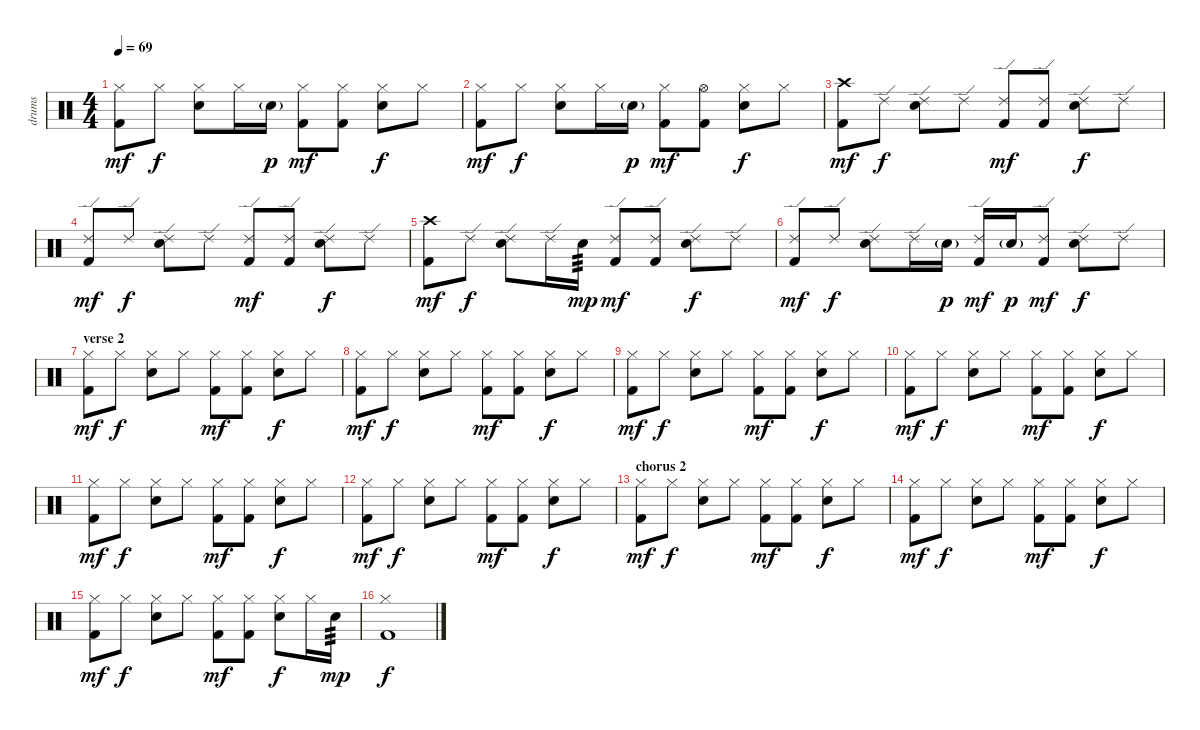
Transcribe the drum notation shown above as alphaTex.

\track ("drums" "drums") {instrument percussion}
\staff {score}
\articulation defaults
\ts (4 4)
\tempo 69
\clef neutral
\ks c
("Hi-Hat (closed)" "Kick (hit) 2").8{dy mf} "Hi-Hat (closed)".8{dy f} ("Hi-Hat (closed)" "Electric Snare (hit)").8 "Hi-Hat (closed)".16 "Electric Snare (hit)"{g}.16{dy p} ("Hi-Hat (closed)" "Kick (hit) 2").8{dy mf} ("Hi-Hat (closed)" "Kick (hit) 2").8 ("Hi-Hat (closed)" "Electric Snare (hit)").8{dy f} "Hi-Hat (closed)".8 |
("Hi-Hat (closed)" "Kick (hit) 2").8{dy mf} "Hi-Hat (closed)".8{dy f} ("Hi-Hat (closed)" "Electric Snare (hit)").8 "Hi-Hat (closed)".16 "Electric Snare (hit)"{g}.16{dy p} ("Hi-Hat (closed)" "Kick (hit) 2").8{dy mf} ("Hi-Hat (open)" "Kick (hit) 2").8 ("Hi-Hat (closed)" "Electric Snare (hit)").8{dy f} "Hi-Hat (closed)".8 |
("Crash high (hit)" "Kick (hit) 2").8{dy mf} "Ride (edge) 2".8{dy f} ("Ride (edge) 2" "Electric Snare (hit)").8 "Ride (edge) 2".8 ("Ride (edge) 2" "Kick (hit) 2").8{dy mf} ("Ride (edge) 2" "Kick (hit) 2").8 ("Ride (edge) 2" "Electric Snare (hit)").8{dy f} "Ride (edge) 2".8 |
("Ride (edge) 2" "Kick (hit) 2").8{dy mf} "Ride (edge) 2".8{dy f} ("Ride (edge) 2" "Electric Snare (hit)").8 "Ride (edge) 2".8 ("Ride (edge) 2" "Kick (hit) 2").8{dy mf} ("Ride (edge) 2" "Kick (hit) 2").8 ("Ride (edge) 2" "Electric Snare (hit)").8{dy f} "Ride (edge) 2".8 |
("Crash high (hit)" "Kick (hit) 2").8{dy mf} "Ride (edge) 2".8{dy f} ("Ride (edge) 2" "Electric Snare (hit)").8 "Ride (edge) 2".16 "Electric Snare (hit)".16{tp 3 dy mp} ("Ride (edge) 2" "Kick (hit) 2").8{dy mf} ("Ride (edge) 2" "Kick (hit) 2").8 ("Ride (edge) 2" "Electric Snare (hit)").8{dy f} "Ride (edge) 2".8 |
("Ride (edge) 2" "Kick (hit) 2").8{dy mf} "Ride (edge) 2".8{dy f} ("Ride (edge) 2" "Electric Snare (hit)").8 "Ride (edge) 2".16 "Electric Snare (hit)"{g}.16{dy p} ("Ride (edge) 2" "Kick (hit) 2").16{dy mf} "Electric Snare (hit)"{g}.16{dy p} ("Ride (edge) 2" "Kick (hit) 2").8{dy mf} ("Ride (edge) 2" "Electric Snare (hit)").8{dy f} "Ride (edge) 2".8 |
\section ("" "verse 2")
("Hi-Hat (closed)" "Kick (hit) 2").8{dy mf} "Hi-Hat (closed)".8{dy f} ("Hi-Hat (closed)" "Electric Snare (hit)").8 "Hi-Hat (closed)".8 ("Hi-Hat (closed)" "Kick (hit) 2").8{dy mf} ("Hi-Hat (closed)" "Kick (hit) 2").8 ("Hi-Hat (closed)" "Electric Snare (hit)").8{dy f} "Hi-Hat (closed)".8 |
("Hi-Hat (closed)" "Kick (hit) 2").8{dy mf} "Hi-Hat (closed)".8{dy f} ("Hi-Hat (closed)" "Electric Snare (hit)").8 "Hi-Hat (closed)".8 ("Hi-Hat (closed)" "Kick (hit) 2").8{dy mf} ("Hi-Hat (closed)" "Kick (hit) 2").8 ("Hi-Hat (closed)" "Electric Snare (hit)").8{dy f} "Hi-Hat (closed)".8 |
("Hi-Hat (closed)" "Kick (hit) 2").8{dy mf} "Hi-Hat (closed)".8{dy f} ("Hi-Hat (closed)" "Electric Snare (hit)").8 "Hi-Hat (closed)".8 ("Hi-Hat (closed)" "Kick (hit) 2").8{dy mf} ("Hi-Hat (closed)" "Kick (hit) 2").8 ("Hi-Hat (closed)" "Electric Snare (hit)").8{dy f} "Hi-Hat (closed)".8 |
("Hi-Hat (closed)" "Kick (hit) 2").8{dy mf} "Hi-Hat (closed)".8{dy f} ("Hi-Hat (closed)" "Electric Snare (hit)").8 "Hi-Hat (closed)".8 ("Hi-Hat (closed)" "Kick (hit) 2").8{dy mf} ("Hi-Hat (closed)" "Kick (hit) 2").8 ("Hi-Hat (closed)" "Electric Snare (hit)").8{dy f} "Hi-Hat (closed)".8 |
("Hi-Hat (closed)" "Kick (hit) 2").8{dy mf} "Hi-Hat (closed)".8{dy f} ("Hi-Hat (closed)" "Electric Snare (hit)").8 "Hi-Hat (closed)".8 ("Hi-Hat (closed)" "Kick (hit) 2").8{dy mf} ("Hi-Hat (closed)" "Kick (hit) 2").8 ("Hi-Hat (closed)" "Electric Snare (hit)").8{dy f} "Hi-Hat (closed)".8 |
("Hi-Hat (closed)" "Kick (hit) 2").8{dy mf} "Hi-Hat (closed)".8{dy f} ("Hi-Hat (closed)" "Electric Snare (hit)").8 "Hi-Hat (closed)".8 ("Hi-Hat (closed)" "Kick (hit) 2").8{dy mf} ("Hi-Hat (closed)" "Kick (hit) 2").8 ("Hi-Hat (closed)" "Electric Snare (hit)").8{dy f} "Hi-Hat (closed)".8 |
\section ("" "chorus 2")
("Hi-Hat (closed)" "Kick (hit) 2").8{dy mf} "Hi-Hat (closed)".8{dy f} ("Hi-Hat (closed)" "Electric Snare (hit)").8 "Hi-Hat (closed)".8 ("Hi-Hat (closed)" "Kick (hit) 2").8{dy mf} ("Hi-Hat (closed)" "Kick (hit) 2").8 ("Hi-Hat (closed)" "Electric Snare (hit)").8{dy f} "Hi-Hat (closed)".8 |
("Hi-Hat (closed)" "Kick (hit) 2").8{dy mf} "Hi-Hat (closed)".8{dy f} ("Hi-Hat (closed)" "Electric Snare (hit)").8 "Hi-Hat (closed)".8 ("Hi-Hat (closed)" "Kick (hit) 2").8{dy mf} ("Hi-Hat (closed)" "Kick (hit) 2").8 ("Hi-Hat (closed)" "Electric Snare (hit)").8{dy f} "Hi-Hat (closed)".8 |
("Hi-Hat (closed)" "Kick (hit) 2").8{dy mf} "Hi-Hat (closed)".8{dy f} ("Hi-Hat (closed)" "Electric Snare (hit)").8 "Hi-Hat (closed)".8 ("Hi-Hat (closed)" "Kick (hit) 2").8{dy mf} ("Hi-Hat (closed)" "Kick (hit) 2").8 ("Hi-Hat (closed)" "Electric Snare (hit)").8{dy f} "Hi-Hat (closed)".16 "Electric Snare (hit)".16{tp 3 dy mp} |
("Hi-Hat (closed)" "Kick (hit) 2").1{dy f}
